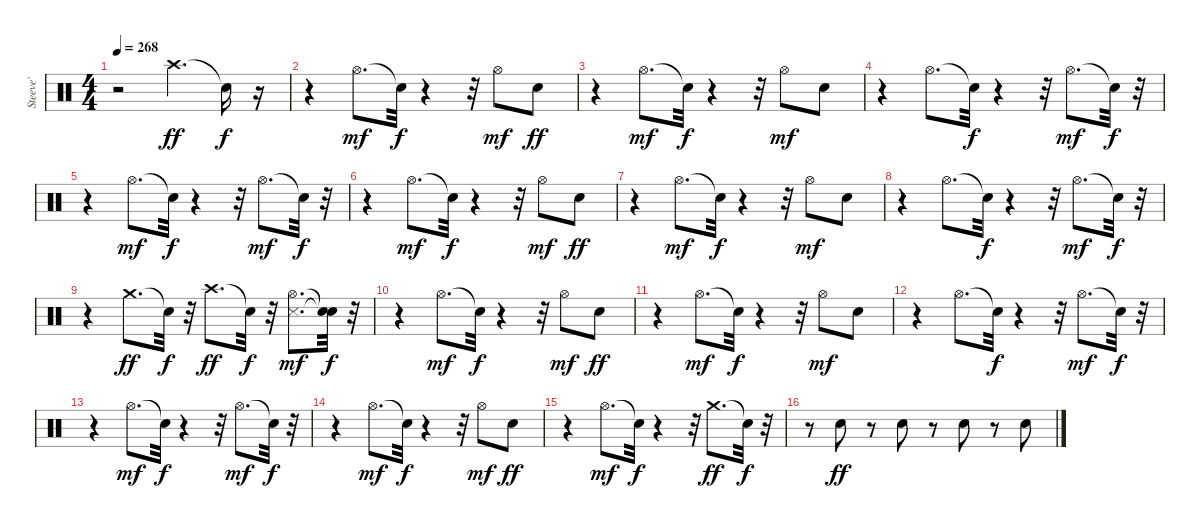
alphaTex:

\track ("Steeve'" "Steeve'") {instrument percussion}
\staff {score}
\articulation defaults
\ts (4 4)
\tempo 268
\clef neutral
\ks c
r.2{dy f} "Crash high (hit)".4{d dy ff} "Snare (hit)"{t}.16{dy f} r.16 |
r.4 "Hi-Hat (open)".8{d dy mf} "Snare (hit)"{t}.32{dy f} r.4 r.32 "Hi-Hat (open)".8{dy mf} "Electric Snare (hit)".8{dy ff} |
r.4 "Hi-Hat (open)".8{d dy mf} "Snare (hit)"{t}.32{dy f} r.4 r.32 "Hi-Hat (open)".8{dy mf} "Electric Snare (hit)".8 |
r.4 "Hi-Hat (open)".8{d} "Snare (hit)"{t}.32{dy f} r.4 r.32 "Hi-Hat (open)".8{d dy mf} "Snare (hit)"{t}.32{dy f} r.32 |
r.4 "Hi-Hat (open)".8{d dy mf} "Snare (hit)"{t}.32{dy f} r.4 r.32 "Hi-Hat (open)".8{d dy mf} "Snare (hit)"{t}.32{dy f} r.32 |
r.4 "Hi-Hat (open)".8{d dy mf} "Snare (hit)"{t}.32{dy f} r.4 r.32 "Hi-Hat (open)".8{dy mf} "Electric Snare (hit)".8{dy ff} |
r.4 "Hi-Hat (open)".8{d dy mf} "Snare (hit)"{t}.32{dy f} r.4 r.32 "Hi-Hat (open)".8{dy mf} "Electric Snare (hit)".8 |
r.4 "Hi-Hat (open)".8{d} "Snare (hit)"{t}.32{dy f} r.4 r.32 "Hi-Hat (open)".8{d dy mf} "Snare (hit)"{t}.32{dy f} r.32 |
r.4 "Crash medium (hit)".8{d dy ff} "Snare (hit)"{t}.32{dy f} r.32 "Crash high (hit)".8{d dy ff} "Snare (hit)"{t}.32{dy f} r.32 ("Snare (side stick) 3" "Hi-Hat (open)").8{d dy mf} ("Snare (hit)"{t} "Snare (hit)"{t}).32{dy f} r.32 |
r.4 "Hi-Hat (open)".8{d dy mf} "Snare (hit)"{t}.32{dy f} r.4 r.32 "Hi-Hat (open)".8{dy mf} "Electric Snare (hit)".8{dy ff} |
r.4 "Hi-Hat (open)".8{d dy mf} "Snare (hit)"{t}.32{dy f} r.4 r.32 "Hi-Hat (open)".8{dy mf} "Electric Snare (hit)".8 |
r.4 "Hi-Hat (open)".8{d} "Snare (hit)"{t}.32{dy f} r.4 r.32 "Hi-Hat (open)".8{d dy mf} "Snare (hit)"{t}.32{dy f} r.32 |
r.4 "Hi-Hat (open)".8{d dy mf} "Snare (hit)"{t}.32{dy f} r.4 r.32 "Hi-Hat (open)".8{d dy mf} "Snare (hit)"{t}.32{dy f} r.32 |
r.4 "Hi-Hat (open)".8{d dy mf} "Snare (hit)"{t}.32{dy f} r.4 r.32 "Hi-Hat (open)".8{dy mf} "Electric Snare (hit)".8{dy ff} |
r.4 "Hi-Hat (open)".8{d dy mf} "Snare (hit)"{t}.32{dy f} r.4 r.32 "Crash medium (hit)".8{d dy ff} "Snare (hit)"{t}.32{dy f} r.32 |
r.8 "Electric Snare (hit)".8{dy ff} r.8 "Electric Snare (hit)".8 r.8 "Electric Snare (hit)".8 r.8 "Electric Snare (hit)".8
